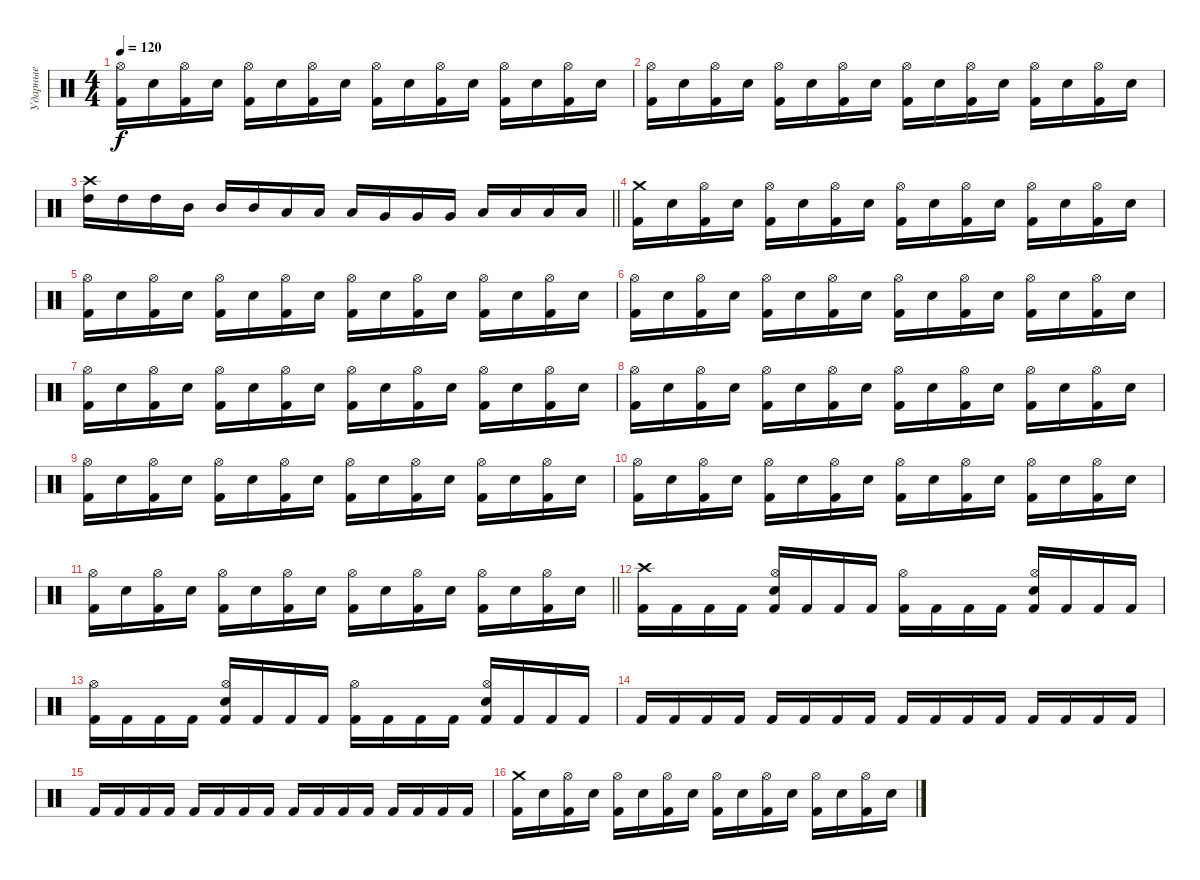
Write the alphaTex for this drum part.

\track ("Ударные" "Ударные") {instrument percussion}
\staff {score}
\articulation defaults
\ts (4 4)
\tempo 120
\clef neutral
\ks c
("Kick (hit) 2" "Hi-Hat (open)").16{dy f} "Electric Snare (hit)".16 ("Kick (hit) 2" "Hi-Hat (open)").16 "Electric Snare (hit)".16 ("Kick (hit) 2" "Hi-Hat (open)").16 "Electric Snare (hit)".16 ("Kick (hit) 2" "Hi-Hat (open)").16 "Electric Snare (hit)".16 ("Kick (hit) 2" "Hi-Hat (open)").16 "Electric Snare (hit)".16 ("Kick (hit) 2" "Hi-Hat (open)").16 "Electric Snare (hit)".16 ("Kick (hit) 2" "Hi-Hat (open)").16 "Electric Snare (hit)".16 ("Kick (hit) 2" "Hi-Hat (open)").16 "Electric Snare (hit)".16 |
("Kick (hit) 2" "Hi-Hat (open)").16 "Electric Snare (hit)".16 ("Kick (hit) 2" "Hi-Hat (open)").16 "Electric Snare (hit)".16 ("Kick (hit) 2" "Hi-Hat (open)").16 "Electric Snare (hit)".16 ("Kick (hit) 2" "Hi-Hat (open)").16 "Electric Snare (hit)".16 ("Kick (hit) 2" "Hi-Hat (open)").16 "Electric Snare (hit)".16 ("Kick (hit) 2" "Hi-Hat (open)").16 "Electric Snare (hit)".16 ("Kick (hit) 2" "Hi-Hat (open)").16 "Electric Snare (hit)".16 ("Kick (hit) 2" "Hi-Hat (open)").16 "Electric Snare (hit)".16 |
\barLineRight lightlight
("High Tom (hit)" "Crash high (hit)").16 "High Tom (hit)".16 "High Tom (hit)".16 "Mid Tom (hit)".16 "Mid Tom (hit)".16 "Mid Tom (hit)".16 "Low Tom (hit)".16 "Low Tom (hit)".16 "Low Tom (hit)".16 "Very Low Tom (hit)".16 "Very Low Tom (hit)".16 "Very Low Tom (hit)".16 "Low Floor Tom (hit)".16 "Low Floor Tom (hit)".16 "Low Floor Tom (hit)".16 "Low Floor Tom (hit)".16 |
\section ("" "")
("Kick (hit) 2" "Crash medium (hit)").16 "Electric Snare (hit)".16 ("Kick (hit) 2" "Hi-Hat (open)").16 "Electric Snare (hit)".16 ("Kick (hit) 2" "Hi-Hat (open)").16 "Electric Snare (hit)".16 ("Kick (hit) 2" "Hi-Hat (open)").16 "Electric Snare (hit)".16 ("Kick (hit) 2" "Hi-Hat (open)").16 "Electric Snare (hit)".16 ("Kick (hit) 2" "Hi-Hat (open)").16 "Electric Snare (hit)".16 ("Kick (hit) 2" "Hi-Hat (open)").16 "Electric Snare (hit)".16 ("Kick (hit) 2" "Hi-Hat (open)").16 "Electric Snare (hit)".16 |
("Kick (hit) 2" "Hi-Hat (open)").16 "Electric Snare (hit)".16 ("Kick (hit) 2" "Hi-Hat (open)").16 "Electric Snare (hit)".16 ("Kick (hit) 2" "Hi-Hat (open)").16 "Electric Snare (hit)".16 ("Kick (hit) 2" "Hi-Hat (open)").16 "Electric Snare (hit)".16 ("Kick (hit) 2" "Hi-Hat (open)").16 "Electric Snare (hit)".16 ("Kick (hit) 2" "Hi-Hat (open)").16 "Electric Snare (hit)".16 ("Kick (hit) 2" "Hi-Hat (open)").16 "Electric Snare (hit)".16 ("Kick (hit) 2" "Hi-Hat (open)").16 "Electric Snare (hit)".16 |
("Kick (hit) 2" "Hi-Hat (open)").16 "Electric Snare (hit)".16 ("Kick (hit) 2" "Hi-Hat (open)").16 "Electric Snare (hit)".16 ("Kick (hit) 2" "Hi-Hat (open)").16 "Electric Snare (hit)".16 ("Kick (hit) 2" "Hi-Hat (open)").16 "Electric Snare (hit)".16 ("Kick (hit) 2" "Hi-Hat (open)").16 "Electric Snare (hit)".16 ("Kick (hit) 2" "Hi-Hat (open)").16 "Electric Snare (hit)".16 ("Kick (hit) 2" "Hi-Hat (open)").16 "Electric Snare (hit)".16 ("Kick (hit) 2" "Hi-Hat (open)").16 "Electric Snare (hit)".16 |
("Kick (hit) 2" "Hi-Hat (open)").16 "Electric Snare (hit)".16 ("Kick (hit) 2" "Hi-Hat (open)").16 "Electric Snare (hit)".16 ("Kick (hit) 2" "Hi-Hat (open)").16 "Electric Snare (hit)".16 ("Kick (hit) 2" "Hi-Hat (open)").16 "Electric Snare (hit)".16 ("Kick (hit) 2" "Hi-Hat (open)").16 "Electric Snare (hit)".16 ("Kick (hit) 2" "Hi-Hat (open)").16 "Electric Snare (hit)".16 ("Kick (hit) 2" "Hi-Hat (open)").16 "Electric Snare (hit)".16 ("Kick (hit) 2" "Hi-Hat (open)").16 "Electric Snare (hit)".16 |
("Kick (hit) 2" "Hi-Hat (open)").16 "Electric Snare (hit)".16 ("Kick (hit) 2" "Hi-Hat (open)").16 "Electric Snare (hit)".16 ("Kick (hit) 2" "Hi-Hat (open)").16 "Electric Snare (hit)".16 ("Kick (hit) 2" "Hi-Hat (open)").16 "Electric Snare (hit)".16 ("Kick (hit) 2" "Hi-Hat (open)").16 "Electric Snare (hit)".16 ("Kick (hit) 2" "Hi-Hat (open)").16 "Electric Snare (hit)".16 ("Kick (hit) 2" "Hi-Hat (open)").16 "Electric Snare (hit)".16 ("Kick (hit) 2" "Hi-Hat (open)").16 "Electric Snare (hit)".16 |
("Kick (hit) 2" "Hi-Hat (open)").16 "Electric Snare (hit)".16 ("Kick (hit) 2" "Hi-Hat (open)").16 "Electric Snare (hit)".16 ("Kick (hit) 2" "Hi-Hat (open)").16 "Electric Snare (hit)".16 ("Kick (hit) 2" "Hi-Hat (open)").16 "Electric Snare (hit)".16 ("Kick (hit) 2" "Hi-Hat (open)").16 "Electric Snare (hit)".16 ("Kick (hit) 2" "Hi-Hat (open)").16 "Electric Snare (hit)".16 ("Kick (hit) 2" "Hi-Hat (open)").16 "Electric Snare (hit)".16 ("Kick (hit) 2" "Hi-Hat (open)").16 "Electric Snare (hit)".16 |
("Kick (hit) 2" "Hi-Hat (open)").16 "Electric Snare (hit)".16 ("Kick (hit) 2" "Hi-Hat (open)").16 "Electric Snare (hit)".16 ("Kick (hit) 2" "Hi-Hat (open)").16 "Electric Snare (hit)".16 ("Kick (hit) 2" "Hi-Hat (open)").16 "Electric Snare (hit)".16 ("Kick (hit) 2" "Hi-Hat (open)").16 "Electric Snare (hit)".16 ("Kick (hit) 2" "Hi-Hat (open)").16 "Electric Snare (hit)".16 ("Kick (hit) 2" "Hi-Hat (open)").16 "Electric Snare (hit)".16 ("Kick (hit) 2" "Hi-Hat (open)").16 "Electric Snare (hit)".16 |
\barLineRight lightlight
("Kick (hit) 2" "Hi-Hat (open)").16 "Electric Snare (hit)".16 ("Kick (hit) 2" "Hi-Hat (open)").16 "Electric Snare (hit)".16 ("Kick (hit) 2" "Hi-Hat (open)").16 "Electric Snare (hit)".16 ("Kick (hit) 2" "Hi-Hat (open)").16 "Electric Snare (hit)".16 ("Kick (hit) 2" "Hi-Hat (open)").16 "Electric Snare (hit)".16 ("Kick (hit) 2" "Hi-Hat (open)").16 "Electric Snare (hit)".16 ("Kick (hit) 2" "Hi-Hat (open)").16 "Electric Snare (hit)".16 ("Kick (hit) 2" "Hi-Hat (open)").16 "Electric Snare (hit)".16 |
("Kick (hit) 2" "Crash high (hit)").16 "Kick (hit) 2".16 "Kick (hit) 2".16 "Kick (hit) 2".16 ("Kick (hit) 2" "Electric Snare (hit)" "Hi-Hat (open)").16 "Kick (hit) 2".16 "Kick (hit) 2".16 "Kick (hit) 2".16 ("Kick (hit) 2" "Hi-Hat (open)").16 "Kick (hit) 2".16 "Kick (hit) 2".16 "Kick (hit) 2".16 ("Kick (hit) 2" "Electric Snare (hit)" "Hi-Hat (open)").16 "Kick (hit) 2".16 "Kick (hit) 2".16 "Kick (hit) 2".16 |
("Kick (hit) 2" "Hi-Hat (open)").16 "Kick (hit) 2".16 "Kick (hit) 2".16 "Kick (hit) 2".16 ("Kick (hit) 2" "Electric Snare (hit)" "Hi-Hat (open)").16 "Kick (hit) 2".16 "Kick (hit) 2".16 "Kick (hit) 2".16 ("Kick (hit) 2" "Hi-Hat (open)").16 "Kick (hit) 2".16 "Kick (hit) 2".16 "Kick (hit) 2".16 ("Kick (hit) 2" "Electric Snare (hit)" "Hi-Hat (open)").16 "Kick (hit) 2".16 "Kick (hit) 2".16 "Kick (hit) 2".16 |
"Kick (hit) 2".16 "Kick (hit) 2".16 "Kick (hit) 2".16 "Kick (hit) 2".16 "Kick (hit) 2".16 "Kick (hit) 2".16 "Kick (hit) 2".16 "Kick (hit) 2".16 "Kick (hit) 2".16 "Kick (hit) 2".16 "Kick (hit) 2".16 "Kick (hit) 2".16 "Kick (hit) 2".16 "Kick (hit) 2".16 "Kick (hit) 2".16 "Kick (hit) 2".16 |
"Kick (hit) 2".16 "Kick (hit) 2".16 "Kick (hit) 2".16 "Kick (hit) 2".16 "Kick (hit) 2".16 "Kick (hit) 2".16 "Kick (hit) 2".16 "Kick (hit) 2".16 "Kick (hit) 2".16 "Kick (hit) 2".16 "Kick (hit) 2".16 "Kick (hit) 2".16 "Kick (hit) 2".16 "Kick (hit) 2".16 "Kick (hit) 2".16 "Kick (hit) 2".16 |
("Kick (hit) 2" "Crash medium (hit)").16 "Electric Snare (hit)".16 ("Kick (hit) 2" "Hi-Hat (open)").16 "Electric Snare (hit)".16 ("Kick (hit) 2" "Hi-Hat (open)").16 "Electric Snare (hit)".16 ("Kick (hit) 2" "Hi-Hat (open)").16 "Electric Snare (hit)".16 ("Kick (hit) 2" "Hi-Hat (open)").16 "Electric Snare (hit)".16 ("Kick (hit) 2" "Hi-Hat (open)").16 "Electric Snare (hit)".16 ("Kick (hit) 2" "Hi-Hat (open)").16 "Electric Snare (hit)".16 ("Kick (hit) 2" "Hi-Hat (open)").16 "Electric Snare (hit)".16
